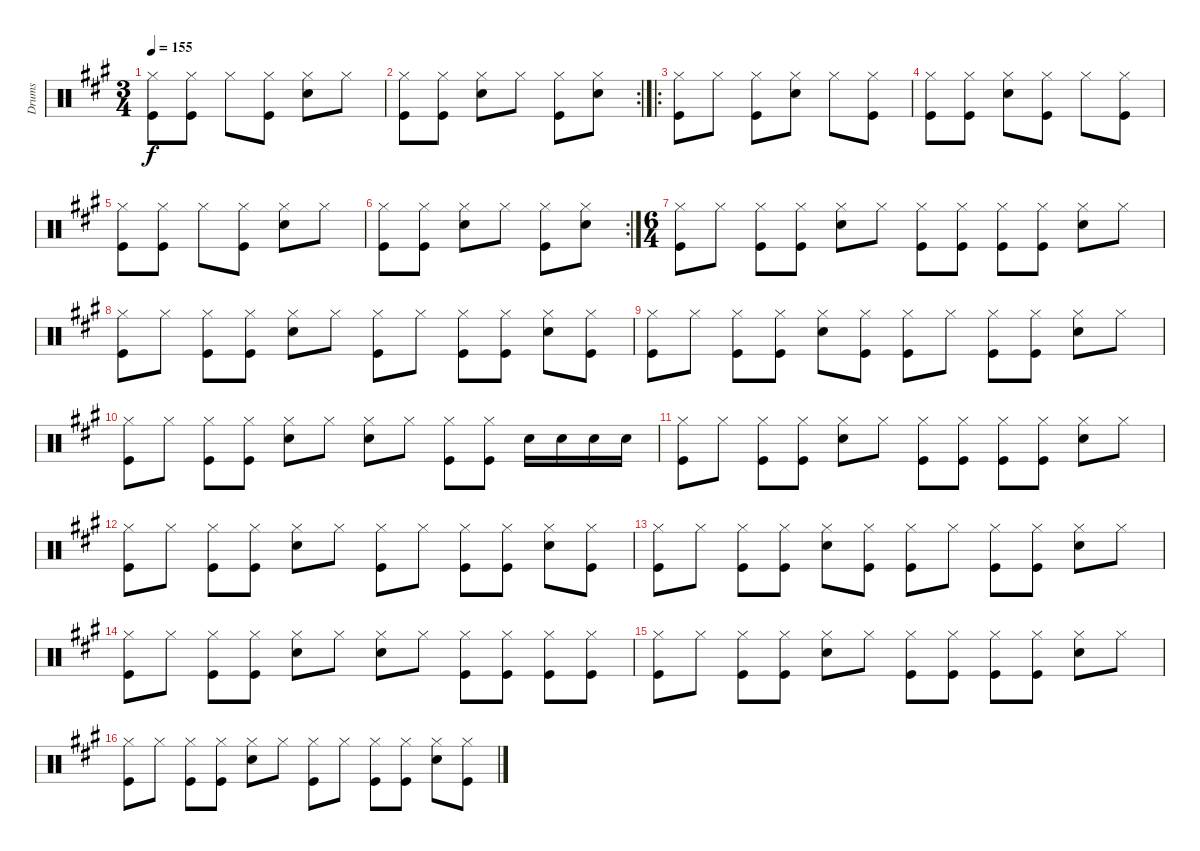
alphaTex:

\track ("Drums" "Drums") {instrument percussion}
\staff {score}
\articulation defaults
\ts (3 4)
\tempo 155
\clef neutral
\ks a
("Hi-Hat (closed)" "Kick (hit)").8{dy f} ("Hi-Hat (closed)" "Kick (hit)").8 "Hi-Hat (closed)".8 ("Hi-Hat (closed)" "Kick (hit)").8 ("Hi-Hat (closed)" "Snare (hit) 2").8 "Hi-Hat (closed)".8 |
\rc 2
("Hi-Hat (closed)" "Kick (hit)").8 ("Hi-Hat (closed)" "Kick (hit)").8 ("Hi-Hat (closed)" "Snare (hit) 2").8 "Hi-Hat (closed)".8 ("Hi-Hat (closed)" "Kick (hit)").8 ("Hi-Hat (closed)" "Snare (hit) 2").8 |
\ro
("Hi-Hat (closed)" "Kick (hit)").8 "Hi-Hat (closed)".8 ("Hi-Hat (closed)" "Kick (hit)").8 ("Hi-Hat (closed)" "Snare (hit) 2").8 "Hi-Hat (closed)".8 ("Hi-Hat (closed)" "Kick (hit)").8 |
("Hi-Hat (closed)" "Kick (hit)").8 ("Hi-Hat (closed)" "Kick (hit)").8 ("Hi-Hat (closed)" "Snare (hit) 2").8 ("Hi-Hat (closed)" "Kick (hit)").8 "Hi-Hat (closed)".8 ("Hi-Hat (closed)" "Kick (hit)").8 |
("Hi-Hat (closed)" "Kick (hit)").8 ("Hi-Hat (closed)" "Kick (hit)").8 "Hi-Hat (closed)".8 ("Hi-Hat (closed)" "Kick (hit)").8 ("Hi-Hat (closed)" "Snare (hit) 2").8 "Hi-Hat (closed)".8 |
\rc 2
("Hi-Hat (closed)" "Kick (hit)").8 ("Hi-Hat (closed)" "Kick (hit)").8 ("Hi-Hat (closed)" "Snare (hit) 2").8 "Hi-Hat (closed)".8 ("Hi-Hat (closed)" "Kick (hit)").8 ("Hi-Hat (closed)" "Snare (hit) 2").8 |
\ts (6 4)
("Hi-Hat (closed)" "Kick (hit)").8 "Hi-Hat (closed)".8 ("Hi-Hat (closed)" "Kick (hit)").8 ("Hi-Hat (closed)" "Kick (hit)").8 ("Hi-Hat (closed)" "Snare (hit) 2").8 "Hi-Hat (closed)".8 ("Hi-Hat (closed)" "Kick (hit)").8 ("Hi-Hat (closed)" "Kick (hit)").8 ("Hi-Hat (closed)" "Kick (hit)").8 ("Hi-Hat (closed)" "Kick (hit)").8 ("Hi-Hat (closed)" "Snare (hit) 2").8 "Hi-Hat (closed)".8 |
("Hi-Hat (closed)" "Kick (hit)").8 "Hi-Hat (closed)".8 ("Hi-Hat (closed)" "Kick (hit)").8 ("Hi-Hat (closed)" "Kick (hit)").8 ("Hi-Hat (closed)" "Snare (hit) 2").8 "Hi-Hat (closed)".8 ("Hi-Hat (closed)" "Kick (hit)").8 "Hi-Hat (closed)".8 ("Hi-Hat (closed)" "Kick (hit)").8 ("Hi-Hat (closed)" "Kick (hit)").8 ("Hi-Hat (closed)" "Snare (hit) 2").8 ("Hi-Hat (closed)" "Kick (hit)").8 |
("Hi-Hat (closed)" "Kick (hit)").8 "Hi-Hat (closed)".8 ("Hi-Hat (closed)" "Kick (hit)").8 ("Hi-Hat (closed)" "Kick (hit)").8 ("Hi-Hat (closed)" "Snare (hit) 2").8 ("Hi-Hat (closed)" "Kick (hit)").8 ("Hi-Hat (closed)" "Kick (hit)").8 "Hi-Hat (closed)".8 ("Hi-Hat (closed)" "Kick (hit)").8 ("Hi-Hat (closed)" "Kick (hit)").8 ("Hi-Hat (closed)" "Snare (hit) 2").8 "Hi-Hat (closed)".8 |
("Hi-Hat (closed)" "Kick (hit)").8 "Hi-Hat (closed)".8 ("Hi-Hat (closed)" "Kick (hit)").8 ("Hi-Hat (closed)" "Kick (hit)").8 ("Hi-Hat (closed)" "Snare (hit) 2").8 "Hi-Hat (closed)".8 ("Hi-Hat (closed)" "Snare (hit) 2").8 "Hi-Hat (closed)".8 ("Hi-Hat (closed)" "Kick (hit)").8 ("Hi-Hat (closed)" "Kick (hit)").8 "Snare (hit) 2".16 "Snare (hit) 2".16 "Snare (hit) 2".16 "Snare (hit) 2".16 |
("Hi-Hat (closed)" "Kick (hit)").8 "Hi-Hat (closed)".8 ("Hi-Hat (closed)" "Kick (hit)").8 ("Hi-Hat (closed)" "Kick (hit)").8 ("Hi-Hat (closed)" "Snare (hit) 2").8 "Hi-Hat (closed)".8 ("Hi-Hat (closed)" "Kick (hit)").8 ("Hi-Hat (closed)" "Kick (hit)").8 ("Hi-Hat (closed)" "Kick (hit)").8 ("Hi-Hat (closed)" "Kick (hit)").8 ("Hi-Hat (closed)" "Snare (hit) 2").8 "Hi-Hat (closed)".8 |
("Hi-Hat (closed)" "Kick (hit)").8 "Hi-Hat (closed)".8 ("Hi-Hat (closed)" "Kick (hit)").8 ("Hi-Hat (closed)" "Kick (hit)").8 ("Hi-Hat (closed)" "Snare (hit) 2").8 "Hi-Hat (closed)".8 ("Hi-Hat (closed)" "Kick (hit)").8 "Hi-Hat (closed)".8 ("Hi-Hat (closed)" "Kick (hit)").8 ("Hi-Hat (closed)" "Kick (hit)").8 ("Hi-Hat (closed)" "Snare (hit) 2").8 ("Hi-Hat (closed)" "Kick (hit)").8 |
("Hi-Hat (closed)" "Kick (hit)").8 "Hi-Hat (closed)".8 ("Hi-Hat (closed)" "Kick (hit)").8 ("Hi-Hat (closed)" "Kick (hit)").8 ("Hi-Hat (closed)" "Snare (hit) 2").8 ("Hi-Hat (closed)" "Kick (hit)").8 ("Hi-Hat (closed)" "Kick (hit)").8 "Hi-Hat (closed)".8 ("Hi-Hat (closed)" "Kick (hit)").8 ("Hi-Hat (closed)" "Kick (hit)").8 ("Hi-Hat (closed)" "Snare (hit) 2").8 "Hi-Hat (closed)".8 |
("Hi-Hat (closed)" "Kick (hit)").8 "Hi-Hat (closed)".8 ("Hi-Hat (closed)" "Kick (hit)").8 ("Hi-Hat (closed)" "Kick (hit)").8 ("Hi-Hat (closed)" "Snare (hit) 2").8 "Hi-Hat (closed)".8 ("Hi-Hat (closed)" "Snare (hit) 2").8 "Hi-Hat (closed)".8 ("Hi-Hat (closed)" "Kick (hit)").8 ("Hi-Hat (closed)" "Kick (hit)").8 ("Hi-Hat (closed)" "Kick (hit)").8 ("Hi-Hat (closed)" "Kick (hit)").8 |
("Hi-Hat (closed)" "Kick (hit)").8 "Hi-Hat (closed)".8 ("Hi-Hat (closed)" "Kick (hit)").8 ("Hi-Hat (closed)" "Kick (hit)").8 ("Hi-Hat (closed)" "Snare (hit) 2").8 "Hi-Hat (closed)".8 ("Hi-Hat (closed)" "Kick (hit)").8 ("Hi-Hat (closed)" "Kick (hit)").8 ("Hi-Hat (closed)" "Kick (hit)").8 ("Hi-Hat (closed)" "Kick (hit)").8 ("Hi-Hat (closed)" "Snare (hit) 2").8 "Hi-Hat (closed)".8 |
("Hi-Hat (closed)" "Kick (hit)").8 "Hi-Hat (closed)".8 ("Hi-Hat (closed)" "Kick (hit)").8 ("Hi-Hat (closed)" "Kick (hit)").8 ("Hi-Hat (closed)" "Snare (hit) 2").8 "Hi-Hat (closed)".8 ("Hi-Hat (closed)" "Kick (hit)").8 "Hi-Hat (closed)".8 ("Hi-Hat (closed)" "Kick (hit)").8 ("Hi-Hat (closed)" "Kick (hit)").8 ("Hi-Hat (closed)" "Snare (hit) 2").8 ("Hi-Hat (closed)" "Kick (hit)").8
